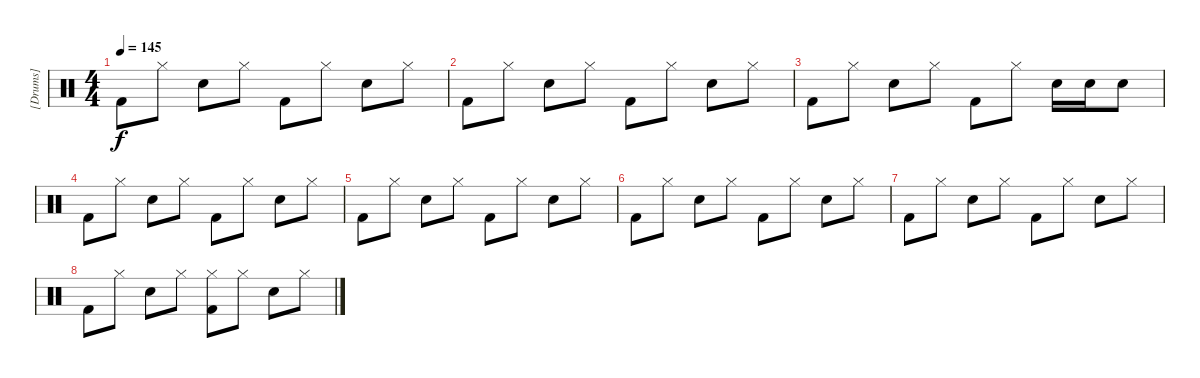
\track ("[Drums]" "[Drums]") {instrument percussion}
\staff {score}
\articulation defaults
\ts (4 4)
\tempo 145
\clef neutral
\ks c "Kick (hit) 2".8{dy f} "Hi-Hat (closed)".8 "Electric Snare (hit)".8 "Hi-Hat (closed)".8 "Kick (hit) 2".8 "Hi-Hat (closed)".8 "Electric Snare (hit)".8 "Hi-Hat (closed)".8
|
"Kick (hit) 2".8 "Hi-Hat (closed)".8 "Electric Snare (hit)".8 "Hi-Hat (closed)".8 "Kick (hit) 2".8 "Hi-Hat (closed)".8 "Electric Snare (hit)".8 "Hi-Hat (closed)".8 |
"Kick (hit) 2".8 "Hi-Hat (closed)".8 "Electric Snare (hit)".8 "Hi-Hat (closed)".8 "Kick (hit) 2".8 "Hi-Hat (closed)".8 "Electric Snare (hit)".16 "Electric Snare (hit)".16 "Electric Snare (hit)".8 |
"Kick (hit) 2".8 "Hi-Hat (closed)".8 "Electric Snare (hit)".8 "Hi-Hat (closed)".8 "Kick (hit) 2".8 "Hi-Hat (closed)".8 "Electric Snare (hit)".8 "Hi-Hat (closed)".8 |
"Kick (hit) 2".8 "Hi-Hat (closed)".8 "Electric Snare (hit)".8 "Hi-Hat (closed)".8 "Kick (hit) 2".8 "Hi-Hat (closed)".8 "Electric Snare (hit)".8 "Hi-Hat (closed)".8 |
"Kick (hit) 2".8 "Hi-Hat (closed)".8 "Electric Snare (hit)".8 "Hi-Hat (closed)".8 "Kick (hit) 2".8 "Hi-Hat (closed)".8 "Electric Snare (hit)".8 "Hi-Hat (closed)".8 |
"Kick (hit) 2".8 "Hi-Hat (closed)".8 "Electric Snare (hit)".8 "Hi-Hat (closed)".8 "Kick (hit) 2".8 "Hi-Hat (closed)".8 "Electric Snare (hit)".8 "Hi-Hat (closed)".8 |
"Kick (hit) 2".8 "Hi-Hat (closed)".8 "Electric Snare (hit)".8 "Hi-Hat (closed)".8 ("Hi-Hat (closed)" "Kick (hit) 2").8 "Hi-Hat (closed)".8 "Electric Snare (hit)".8 "Hi-Hat (closed)".8
